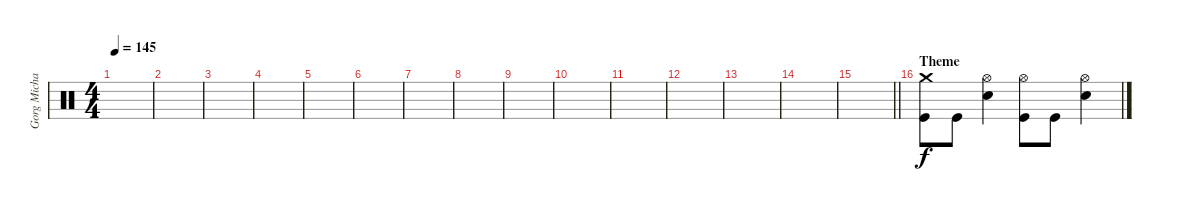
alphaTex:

\track ("Gorg Michael" "Gorg Micha") {instrument percussion}
\staff {score}
\articulation defaults
\ts (4 4)
\tempo 145
\clef neutral
\ks c
|
|
|
|
|
|
|
|
|
|
|
|
|
|
\barLineRight lightlight
|
\section ("" "Theme")
("Crash medium (hit)" "Kick (hit)").8 "Kick (hit)".8 ("Hi-Hat (open)" "Snare (hit) 2").4 ("Hi-Hat (open)" "Kick (hit)").8 "Kick (hit)".8 ("Hi-Hat (open)" "Snare (hit) 2").4
